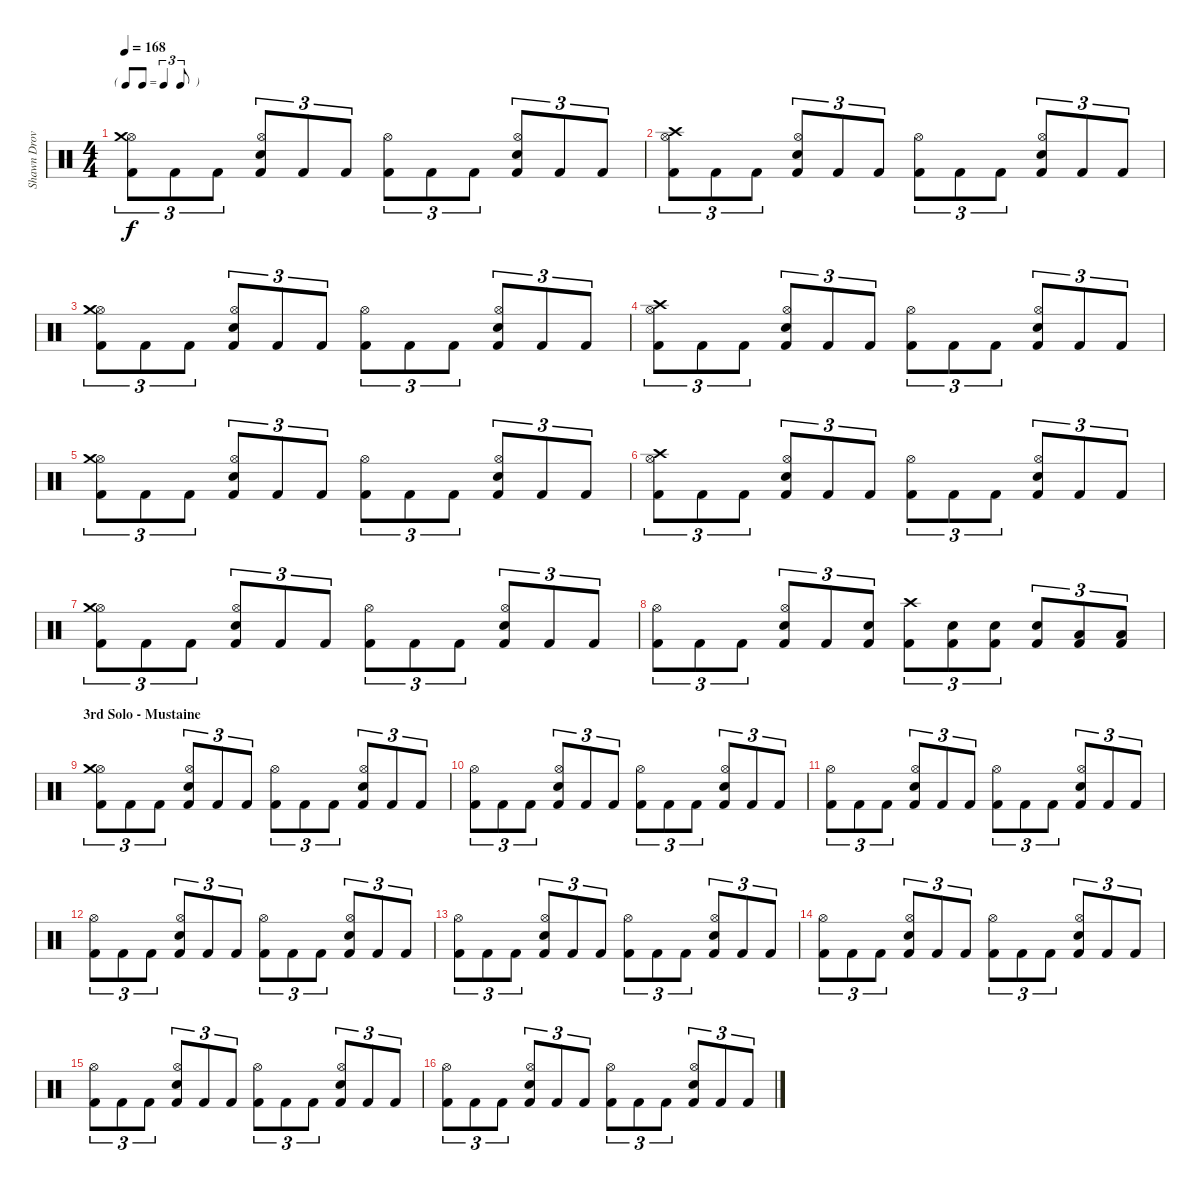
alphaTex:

\track ("Shawn Drover" "Shawn Drov") {instrument percussion}
\staff {score}
\articulation defaults
\ts (4 4)
\tf triplet8th
\tempo 168
\clef neutral
\ks c
("Kick (hit) 2" "Hi-Hat (open)" "Crash medium (hit)").8{tu (3 2) dy f} "Kick (hit) 2".8{tu (3 2)} "Kick (hit) 2".8{tu (3 2)} ("Kick (hit) 2" "Snare (hit) 2" "Hi-Hat (open)").8{tu (3 2)} "Kick (hit) 2".8{tu (3 2)} "Kick (hit) 2".8{tu (3 2)} ("Kick (hit) 2" "Hi-Hat (open)").8{tu (3 2)} "Kick (hit) 2".8{tu (3 2)} "Kick (hit) 2".8{tu (3 2)} ("Kick (hit) 2" "Snare (hit) 2" "Hi-Hat (open)").8{tu (3 2)} "Kick (hit) 2".8{tu (3 2)} "Kick (hit) 2".8{tu (3 2)} |
("Kick (hit) 2" "Hi-Hat (open)" "Crash high (hit)").8{tu (3 2)} "Kick (hit) 2".8{tu (3 2)} "Kick (hit) 2".8{tu (3 2)} ("Kick (hit) 2" "Snare (hit) 2" "Hi-Hat (open)").8{tu (3 2)} "Kick (hit) 2".8{tu (3 2)} "Kick (hit) 2".8{tu (3 2)} ("Kick (hit) 2" "Hi-Hat (open)").8{tu (3 2)} "Kick (hit) 2".8{tu (3 2)} "Kick (hit) 2".8{tu (3 2)} ("Kick (hit) 2" "Snare (hit) 2" "Hi-Hat (open)").8{tu (3 2)} "Kick (hit) 2".8{tu (3 2)} "Kick (hit) 2".8{tu (3 2)} |
("Kick (hit) 2" "Hi-Hat (open)" "Crash medium (hit)").8{tu (3 2)} "Kick (hit) 2".8{tu (3 2)} "Kick (hit) 2".8{tu (3 2)} ("Kick (hit) 2" "Snare (hit) 2" "Hi-Hat (open)").8{tu (3 2)} "Kick (hit) 2".8{tu (3 2)} "Kick (hit) 2".8{tu (3 2)} ("Kick (hit) 2" "Hi-Hat (open)").8{tu (3 2)} "Kick (hit) 2".8{tu (3 2)} "Kick (hit) 2".8{tu (3 2)} ("Kick (hit) 2" "Snare (hit) 2" "Hi-Hat (open)").8{tu (3 2)} "Kick (hit) 2".8{tu (3 2)} "Kick (hit) 2".8{tu (3 2)} |
("Kick (hit) 2" "Hi-Hat (open)" "Crash high (hit)").8{tu (3 2)} "Kick (hit) 2".8{tu (3 2)} "Kick (hit) 2".8{tu (3 2)} ("Kick (hit) 2" "Snare (hit) 2" "Hi-Hat (open)").8{tu (3 2)} "Kick (hit) 2".8{tu (3 2)} "Kick (hit) 2".8{tu (3 2)} ("Kick (hit) 2" "Hi-Hat (open)").8{tu (3 2)} "Kick (hit) 2".8{tu (3 2)} "Kick (hit) 2".8{tu (3 2)} ("Kick (hit) 2" "Snare (hit) 2" "Hi-Hat (open)").8{tu (3 2)} "Kick (hit) 2".8{tu (3 2)} "Kick (hit) 2".8{tu (3 2)} |
("Kick (hit) 2" "Hi-Hat (open)" "Crash medium (hit)").8{tu (3 2)} "Kick (hit) 2".8{tu (3 2)} "Kick (hit) 2".8{tu (3 2)} ("Kick (hit) 2" "Snare (hit) 2" "Hi-Hat (open)").8{tu (3 2)} "Kick (hit) 2".8{tu (3 2)} "Kick (hit) 2".8{tu (3 2)} ("Kick (hit) 2" "Hi-Hat (open)").8{tu (3 2)} "Kick (hit) 2".8{tu (3 2)} "Kick (hit) 2".8{tu (3 2)} ("Kick (hit) 2" "Snare (hit) 2" "Hi-Hat (open)").8{tu (3 2)} "Kick (hit) 2".8{tu (3 2)} "Kick (hit) 2".8{tu (3 2)} |
("Kick (hit) 2" "Hi-Hat (open)" "Crash high (hit)").8{tu (3 2)} "Kick (hit) 2".8{tu (3 2)} "Kick (hit) 2".8{tu (3 2)} ("Kick (hit) 2" "Snare (hit) 2" "Hi-Hat (open)").8{tu (3 2)} "Kick (hit) 2".8{tu (3 2)} "Kick (hit) 2".8{tu (3 2)} ("Kick (hit) 2" "Hi-Hat (open)").8{tu (3 2)} "Kick (hit) 2".8{tu (3 2)} "Kick (hit) 2".8{tu (3 2)} ("Kick (hit) 2" "Snare (hit) 2" "Hi-Hat (open)").8{tu (3 2)} "Kick (hit) 2".8{tu (3 2)} "Kick (hit) 2".8{tu (3 2)} |
("Kick (hit) 2" "Hi-Hat (open)" "Crash medium (hit)").8{tu (3 2)} "Kick (hit) 2".8{tu (3 2)} "Kick (hit) 2".8{tu (3 2)} ("Kick (hit) 2" "Snare (hit) 2" "Hi-Hat (open)").8{tu (3 2)} "Kick (hit) 2".8{tu (3 2)} "Kick (hit) 2".8{tu (3 2)} ("Kick (hit) 2" "Hi-Hat (open)").8{tu (3 2)} "Kick (hit) 2".8{tu (3 2)} "Kick (hit) 2".8{tu (3 2)} ("Kick (hit) 2" "Snare (hit) 2" "Hi-Hat (open)").8{tu (3 2)} "Kick (hit) 2".8{tu (3 2)} "Kick (hit) 2".8{tu (3 2)} |
("Kick (hit) 2" "Hi-Hat (open)").8{tu (3 2)} "Kick (hit) 2".8{tu (3 2)} "Kick (hit) 2".8{tu (3 2)} ("Kick (hit) 2" "Snare (hit) 2" "Hi-Hat (open)").8{tu (3 2)} "Kick (hit) 2".8{tu (3 2)} ("Kick (hit) 2" "Snare (hit) 2").8{tu (3 2)} ("Kick (hit) 2" "Crash high (hit)").8{tu (3 2)} ("Kick (hit) 2" "Snare (hit) 2").8{tu (3 2)} ("Kick (hit) 2" "Snare (hit) 2").8{tu (3 2)} ("Kick (hit) 2" "Snare (hit) 2").8{tu (3 2)} ("Kick (hit) 2" "Low Tom (hit)").8{tu (3 2)} ("Kick (hit) 2" "Low Tom (hit)").8{tu (3 2)} |
\section ("" "3rd Solo - Mustaine")
("Kick (hit) 2" "Hi-Hat (open)" "Crash medium (hit)").8{tu (3 2)} "Kick (hit) 2".8{tu (3 2)} "Kick (hit) 2".8{tu (3 2)} ("Kick (hit) 2" "Snare (hit) 2" "Hi-Hat (open)").8{tu (3 2)} "Kick (hit) 2".8{tu (3 2)} "Kick (hit) 2".8{tu (3 2)} ("Kick (hit) 2" "Hi-Hat (open)").8{tu (3 2)} "Kick (hit) 2".8{tu (3 2)} "Kick (hit) 2".8{tu (3 2)} ("Kick (hit) 2" "Snare (hit) 2" "Hi-Hat (open)").8{tu (3 2)} "Kick (hit) 2".8{tu (3 2)} "Kick (hit) 2".8{tu (3 2)} |
("Kick (hit) 2" "Hi-Hat (open)").8{tu (3 2)} "Kick (hit) 2".8{tu (3 2)} "Kick (hit) 2".8{tu (3 2)} ("Kick (hit) 2" "Snare (hit) 2" "Hi-Hat (open)").8{tu (3 2)} "Kick (hit) 2".8{tu (3 2)} "Kick (hit) 2".8{tu (3 2)} ("Kick (hit) 2" "Hi-Hat (open)").8{tu (3 2)} "Kick (hit) 2".8{tu (3 2)} "Kick (hit) 2".8{tu (3 2)} ("Kick (hit) 2" "Snare (hit) 2" "Hi-Hat (open)").8{tu (3 2)} "Kick (hit) 2".8{tu (3 2)} "Kick (hit) 2".8{tu (3 2)} |
("Kick (hit) 2" "Hi-Hat (open)").8{tu (3 2)} "Kick (hit) 2".8{tu (3 2)} "Kick (hit) 2".8{tu (3 2)} ("Kick (hit) 2" "Snare (hit) 2" "Hi-Hat (open)").8{tu (3 2)} "Kick (hit) 2".8{tu (3 2)} "Kick (hit) 2".8{tu (3 2)} ("Kick (hit) 2" "Hi-Hat (open)").8{tu (3 2)} "Kick (hit) 2".8{tu (3 2)} "Kick (hit) 2".8{tu (3 2)} ("Kick (hit) 2" "Snare (hit) 2" "Hi-Hat (open)").8{tu (3 2)} "Kick (hit) 2".8{tu (3 2)} "Kick (hit) 2".8{tu (3 2)} |
("Kick (hit) 2" "Hi-Hat (open)").8{tu (3 2)} "Kick (hit) 2".8{tu (3 2)} "Kick (hit) 2".8{tu (3 2)} ("Kick (hit) 2" "Snare (hit) 2" "Hi-Hat (open)").8{tu (3 2)} "Kick (hit) 2".8{tu (3 2)} "Kick (hit) 2".8{tu (3 2)} ("Kick (hit) 2" "Hi-Hat (open)").8{tu (3 2)} "Kick (hit) 2".8{tu (3 2)} "Kick (hit) 2".8{tu (3 2)} ("Kick (hit) 2" "Snare (hit) 2" "Hi-Hat (open)").8{tu (3 2)} "Kick (hit) 2".8{tu (3 2)} "Kick (hit) 2".8{tu (3 2)} |
("Kick (hit) 2" "Hi-Hat (open)").8{tu (3 2)} "Kick (hit) 2".8{tu (3 2)} "Kick (hit) 2".8{tu (3 2)} ("Kick (hit) 2" "Snare (hit) 2" "Hi-Hat (open)").8{tu (3 2)} "Kick (hit) 2".8{tu (3 2)} "Kick (hit) 2".8{tu (3 2)} ("Kick (hit) 2" "Hi-Hat (open)").8{tu (3 2)} "Kick (hit) 2".8{tu (3 2)} "Kick (hit) 2".8{tu (3 2)} ("Kick (hit) 2" "Snare (hit) 2" "Hi-Hat (open)").8{tu (3 2)} "Kick (hit) 2".8{tu (3 2)} "Kick (hit) 2".8{tu (3 2)} |
("Kick (hit) 2" "Hi-Hat (open)").8{tu (3 2)} "Kick (hit) 2".8{tu (3 2)} "Kick (hit) 2".8{tu (3 2)} ("Kick (hit) 2" "Snare (hit) 2" "Hi-Hat (open)").8{tu (3 2)} "Kick (hit) 2".8{tu (3 2)} "Kick (hit) 2".8{tu (3 2)} ("Kick (hit) 2" "Hi-Hat (open)").8{tu (3 2)} "Kick (hit) 2".8{tu (3 2)} "Kick (hit) 2".8{tu (3 2)} ("Kick (hit) 2" "Snare (hit) 2" "Hi-Hat (open)").8{tu (3 2)} "Kick (hit) 2".8{tu (3 2)} "Kick (hit) 2".8{tu (3 2)} |
("Kick (hit) 2" "Hi-Hat (open)").8{tu (3 2)} "Kick (hit) 2".8{tu (3 2)} "Kick (hit) 2".8{tu (3 2)} ("Kick (hit) 2" "Snare (hit) 2" "Hi-Hat (open)").8{tu (3 2)} "Kick (hit) 2".8{tu (3 2)} "Kick (hit) 2".8{tu (3 2)} ("Kick (hit) 2" "Hi-Hat (open)").8{tu (3 2)} "Kick (hit) 2".8{tu (3 2)} "Kick (hit) 2".8{tu (3 2)} ("Kick (hit) 2" "Snare (hit) 2" "Hi-Hat (open)").8{tu (3 2)} "Kick (hit) 2".8{tu (3 2)} "Kick (hit) 2".8{tu (3 2)} |
("Kick (hit) 2" "Hi-Hat (open)").8{tu (3 2)} "Kick (hit) 2".8{tu (3 2)} "Kick (hit) 2".8{tu (3 2)} ("Kick (hit) 2" "Snare (hit) 2" "Hi-Hat (open)").8{tu (3 2)} "Kick (hit) 2".8{tu (3 2)} "Kick (hit) 2".8{tu (3 2)} ("Kick (hit) 2" "Hi-Hat (open)").8{tu (3 2)} "Kick (hit) 2".8{tu (3 2)} "Kick (hit) 2".8{tu (3 2)} ("Kick (hit) 2" "Snare (hit) 2" "Hi-Hat (open)").8{tu (3 2)} "Kick (hit) 2".8{tu (3 2)} "Kick (hit) 2".8{tu (3 2)}
